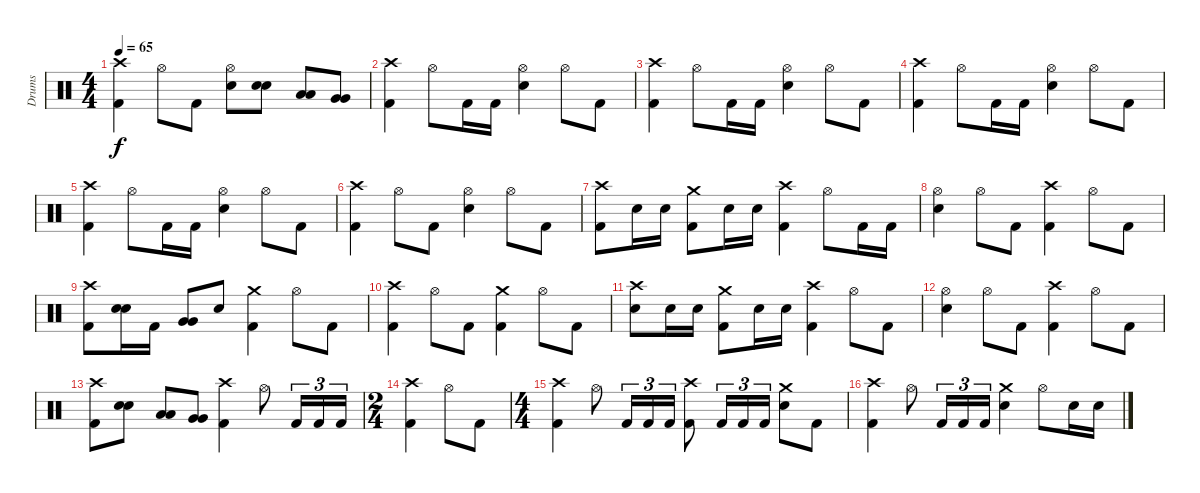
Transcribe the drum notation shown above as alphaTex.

\track ("Drums" "Drums") {instrument percussion}
\staff {score}
\articulation defaults
\ts (4 4)
\tempo 65
\clef neutral
\ks c
("Crash high (hit)" "Kick (hit) 2").4{dy f} "Hi-Hat (open)".8 "Kick (hit) 2".8 ("Hi-Hat (open)" "Electric Snare (hit)").8 ("Electric Snare (hit)" "Electric Snare (hit)").8{bu 60} ("Low Tom (hit)" "Low Tom (hit)").8{bu 60} ("Very Low Tom (hit)" "Very Low Tom (hit)").8{bu 60} |
("Crash high (hit)" "Kick (hit) 2").4 "Hi-Hat (open)".8 "Kick (hit) 2".16 "Kick (hit) 2".16 ("Hi-Hat (open)" "Electric Snare (hit)").4 "Hi-Hat (open)".8 "Kick (hit) 2".8 |
("Crash high (hit)" "Kick (hit) 2").4 "Hi-Hat (open)".8 "Kick (hit) 2".16 "Kick (hit) 2".16 ("Hi-Hat (open)" "Electric Snare (hit)").4 "Hi-Hat (open)".8 "Kick (hit) 2".8 |
("Crash high (hit)" "Kick (hit) 2").4 "Hi-Hat (open)".8 "Kick (hit) 2".16 "Kick (hit) 2".16 ("Hi-Hat (open)" "Electric Snare (hit)").4 "Hi-Hat (open)".8 "Kick (hit) 2".8 |
("Crash high (hit)" "Kick (hit) 2").4 "Hi-Hat (open)".8 "Kick (hit) 2".16 "Kick (hit) 2".16 ("Hi-Hat (open)" "Electric Snare (hit)").4 "Hi-Hat (open)".8 "Kick (hit) 2".8 |
("Crash high (hit)" "Kick (hit) 2").4 "Hi-Hat (open)".8 "Kick (hit) 2".8 ("Hi-Hat (open)" "Electric Snare (hit)").4 "Hi-Hat (open)".8 "Kick (hit) 2".8 |
("Crash high (hit)" "Kick (hit) 2").8 "Electric Snare (hit)".16 "Electric Snare (hit)".16 ("Crash medium (hit)" "Kick (hit) 2").8 "Electric Snare (hit)".16 "Electric Snare (hit)".16 ("Crash high (hit)" "Kick (hit) 2").4 "Hi-Hat (open)".8 "Kick (hit) 2".16 "Kick (hit) 2".16 |
("Hi-Hat (open)" "Electric Snare (hit)").4 "Hi-Hat (open)".8 "Kick (hit) 2".8 ("Crash high (hit)" "Kick (hit) 2").4 "Hi-Hat (open)".8 "Kick (hit) 2".8 |
("Crash high (hit)" "Kick (hit) 2").8 ("Electric Snare (hit)" "Electric Snare (hit)").16{bu 60} "Kick (hit) 2".16 ("Very Low Tom (hit)" "Very Low Tom (hit)").8{bu 60} "Electric Snare (hit)".8 ("Crash medium (hit)" "Kick (hit) 2").4 "Hi-Hat (open)".8 "Kick (hit) 2".8 |
("Crash high (hit)" "Kick (hit) 2").4 "Hi-Hat (open)".8 "Kick (hit) 2".8 ("Crash medium (hit)" "Kick (hit) 2").4 "Hi-Hat (open)".8 "Kick (hit) 2".8 |
("Crash high (hit)" "Electric Snare (hit)").8 "Electric Snare (hit)".16 "Electric Snare (hit)".16 ("Crash medium (hit)" "Kick (hit) 2").8 "Electric Snare (hit)".16 "Electric Snare (hit)".16 ("Crash high (hit)" "Kick (hit) 2").4 "Hi-Hat (open)".8 "Kick (hit) 2".8 |
("Hi-Hat (open)" "Electric Snare (hit)").4 "Hi-Hat (open)".8 "Kick (hit) 2".8 ("Crash high (hit)" "Kick (hit) 2").4 "Hi-Hat (open)".8 "Kick (hit) 2".8 |
("Crash high (hit)" "Kick (hit) 2").8 ("Electric Snare (hit)" "Electric Snare (hit)").8{bu 60} ("Low Tom (hit)" "Low Tom (hit)").8{bu 60} ("Very Low Tom (hit)" "Very Low Tom (hit)").8{bu 60} ("Crash high (hit)" "Kick (hit) 2").4 "Hi-Hat (open)".8 "Kick (hit) 2".16{tu (3 2)} "Kick (hit) 2".16{tu (3 2)} "Kick (hit) 2".16{tu (3 2)} |
\ts (2 4)
("Crash high (hit)" "Kick (hit) 2").4 "Hi-Hat (open)".8 "Kick (hit) 2".8 |
\ts (4 4)
("Crash high (hit)" "Kick (hit) 2").4 "Hi-Hat (open)".8 "Kick (hit) 2".16{tu (3 2)} "Kick (hit) 2".16{tu (3 2)} "Kick (hit) 2".16{tu (3 2)} ("Crash high (hit)" "Kick (hit) 2").8 "Kick (hit) 2".16{tu (3 2)} "Kick (hit) 2".16{tu (3 2)} "Kick (hit) 2".16{tu (3 2)} ("Crash medium (hit)" "Electric Snare (hit)").8 "Kick (hit) 2".8 |
("Crash high (hit)" "Kick (hit) 2").4 "Hi-Hat (open)".8 "Kick (hit) 2".16{tu (3 2)} "Kick (hit) 2".16{tu (3 2)} "Kick (hit) 2".16{tu (3 2)} ("Crash medium (hit)" "Electric Snare (hit)").4 "Hi-Hat (open)".8 "Electric Snare (hit)".16 "Electric Snare (hit)".16
